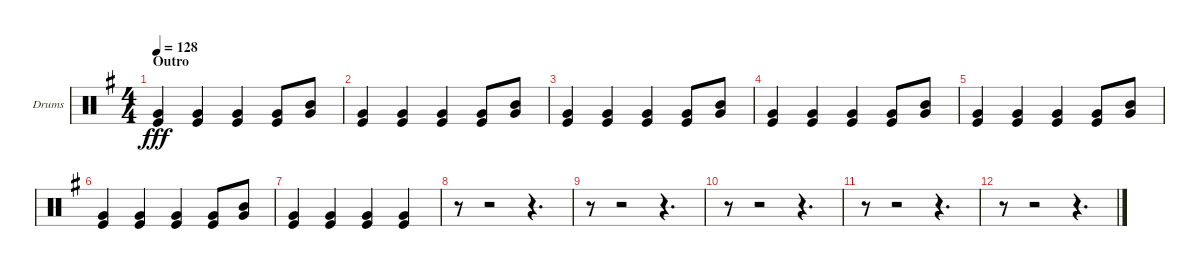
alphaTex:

\bracketExtendMode groupsimilarinstruments
\firstSystemTrackNameOrientation horizontal
\otherSystemsTrackNameOrientation horizontal
\track ("Барабаны" "Drums") {instrument percussion}
\staff {score}
\articulation defaults
\ts (4 4)
\section ("" "Outro")
\tempo 128
\clef neutral
\ks eminor
("Very Low Tom (hit)" "Kick (hit)").4{dy fff} ("Kick (hit)" "Very Low Tom (hit)").4 ("Kick (hit)" "Very Low Tom (hit)").4 ("Kick (hit)" "Very Low Tom (hit)").8 ("Mid Tom (hit)" "Very Low Tom (hit)").8 |
("Very Low Tom (hit)" "Kick (hit)").4 ("Kick (hit)" "Very Low Tom (hit)").4 ("Kick (hit)" "Very Low Tom (hit)").4 ("Kick (hit)" "Very Low Tom (hit)").8 ("Mid Tom (hit)" "Very Low Tom (hit)").8 |
("Very Low Tom (hit)" "Kick (hit)").4 ("Kick (hit)" "Very Low Tom (hit)").4 ("Kick (hit)" "Very Low Tom (hit)").4 ("Kick (hit)" "Very Low Tom (hit)").8 ("Mid Tom (hit)" "Very Low Tom (hit)").8 |
("Very Low Tom (hit)" "Kick (hit)").4 ("Kick (hit)" "Very Low Tom (hit)").4 ("Kick (hit)" "Very Low Tom (hit)").4 ("Kick (hit)" "Very Low Tom (hit)").8 ("Mid Tom (hit)" "Very Low Tom (hit)").8 |
("Very Low Tom (hit)" "Kick (hit)").4 ("Kick (hit)" "Very Low Tom (hit)").4 ("Kick (hit)" "Very Low Tom (hit)").4 ("Kick (hit)" "Very Low Tom (hit)").8 ("Mid Tom (hit)" "Very Low Tom (hit)").8 |
("Very Low Tom (hit)" "Kick (hit)").4 ("Kick (hit)" "Very Low Tom (hit)").4 ("Kick (hit)" "Very Low Tom (hit)").4 ("Kick (hit)" "Very Low Tom (hit)").8 ("Mid Tom (hit)" "Very Low Tom (hit)").8 |
("Very Low Tom (hit)" "Kick (hit)").4 ("Kick (hit)" "Very Low Tom (hit)").4 ("Kick (hit)" "Very Low Tom (hit)").4 ("Kick (hit)" "Very Low Tom (hit)").4 |
r.8 r.2 r.4{d} |
r.8 r.2 r.4{d} |
r.8 r.2 r.4{d} |
r.8 r.2 r.4{d} |
r.8 r.2 r.4{d}
